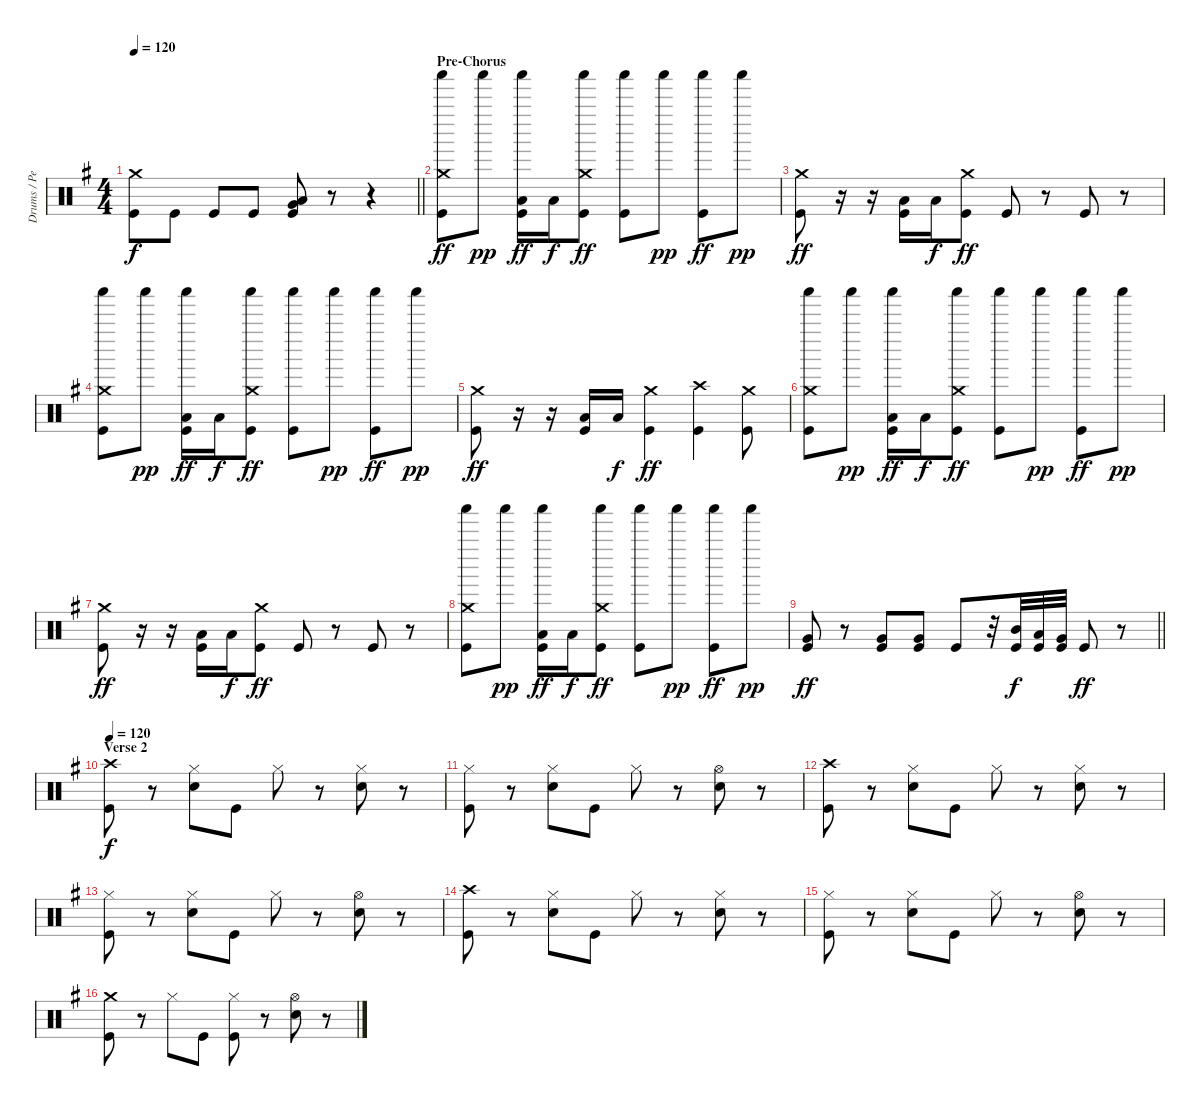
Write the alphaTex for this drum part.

\track ("Drums / Percussion" "Drums / Pe") {instrument percussion}
\staff {score}
\articulation defaults
\ts (4 4)
\tempo 120
\clef neutral
\barLineRight lightlight
\ks eminor
("Crash medium (hit)" "Kick (hit)").8{dy f} "Kick (hit)".8 "Kick (hit)".8 "Kick (hit)".8 ("Low Tom (hit)" "Very Low Tom (hit)" "Kick (hit)").8 r.8 r.4 |
\section ("" "Pre-Chorus")
("Crash medium (hit)" "Shaker (hit)" "Kick (hit)").8{dy ff} "Shaker (hit)".8{dy pp} ("Shaker (hit)" "Low Tom (hit)" "Kick (hit)").16{dy ff} "Low Tom (hit)".16{dy f} ("Crash medium (hit)" "Shaker (hit)" "Kick (hit)").8{dy ff} ("Shaker (hit)" "Kick (hit)").8 "Shaker (hit)".8{dy pp} ("Shaker (hit)" "Kick (hit)").8{dy ff} "Shaker (hit)".8{dy pp} |
("Crash medium (hit)" "Kick (hit)").8{dy ff} r.16 r.16 ("Low Tom (hit)" "Kick (hit)").16 "Low Tom (hit)".16{dy f} ("Crash medium (hit)" "Kick (hit)").8{dy ff} "Kick (hit)".8 r.8 "Kick (hit)".8 r.8 |
("Crash medium (hit)" "Shaker (hit)" "Kick (hit)").8 "Shaker (hit)".8{dy pp} ("Shaker (hit)" "Low Tom (hit)" "Kick (hit)").16{dy ff} "Low Tom (hit)".16{dy f} ("Crash medium (hit)" "Shaker (hit)" "Kick (hit)").8{dy ff} ("Shaker (hit)" "Kick (hit)").8 "Shaker (hit)".8{dy pp} ("Shaker (hit)" "Kick (hit)").8{dy ff} "Shaker (hit)".8{dy pp} |
("Crash medium (hit)" "Kick (hit)").8{dy ff} r.16 r.16 ("Low Tom (hit)" "Kick (hit)").16 "Low Tom (hit)".16{dy f} ("Crash medium (hit)" "Kick (hit)").4{dy ff} ("Crash high (hit)" "Kick (hit)").4 ("Crash medium (hit)" "Kick (hit)").8 |
("Crash medium (hit)" "Shaker (hit)" "Kick (hit)").8 "Shaker (hit)".8{dy pp} ("Shaker (hit)" "Low Tom (hit)" "Kick (hit)").16{dy ff} "Low Tom (hit)".16{dy f} ("Crash medium (hit)" "Shaker (hit)" "Kick (hit)").8{dy ff} ("Shaker (hit)" "Kick (hit)").8 "Shaker (hit)".8{dy pp} ("Shaker (hit)" "Kick (hit)").8{dy ff} "Shaker (hit)".8{dy pp} |
("Crash medium (hit)" "Kick (hit)").8{dy ff} r.16 r.16 ("Low Tom (hit)" "Kick (hit)").16 "Low Tom (hit)".16{dy f} ("Crash medium (hit)" "Kick (hit)").8{dy ff} "Kick (hit)".8 r.8 "Kick (hit)".8 r.8 |
("Crash medium (hit)" "Shaker (hit)" "Kick (hit)").8 "Shaker (hit)".8{dy pp} ("Shaker (hit)" "Low Tom (hit)" "Kick (hit)").16{dy ff} "Low Tom (hit)".16{dy f} ("Crash medium (hit)" "Shaker (hit)" "Kick (hit)").8{dy ff} ("Shaker (hit)" "Kick (hit)").8 "Shaker (hit)".8{dy pp} ("Shaker (hit)" "Kick (hit)").8{dy ff} "Shaker (hit)".8{dy pp} |
\barLineRight lightlight
("Very Low Tom (hit)" "Kick (hit)").8{dy ff} r.8 ("Very Low Tom (hit)" "Kick (hit)").8 ("Very Low Tom (hit)" "Kick (hit)").8 "Kick (hit)".8 r.32 ("Mid Tom (hit)" "Kick (hit)").32{dy f} ("Low Tom (hit)" "Kick (hit)").32 ("Very Low Tom (hit)" "Kick (hit)").32 "Kick (hit)".8{dy ff} r.8 |
\section ("" "Verse 2")
\tempo 120
("Crash high (hit)" "Kick (hit)").8{dy f} r.8 ("Hi-Hat (closed)" "Snare (hit) 2").8 "Kick (hit)".8 "Hi-Hat (closed)".8 r.8 ("Hi-Hat (closed)" "Snare (hit) 2").8 r.8 |
("Hi-Hat (closed)" "Kick (hit)").8 r.8 ("Hi-Hat (closed)" "Snare (hit) 2").8 "Kick (hit)".8 "Hi-Hat (closed)".8 r.8 ("Hi-Hat (open)" "Snare (hit) 2").8 r.8 |
("Crash high (hit)" "Kick (hit)").8 r.8 ("Hi-Hat (closed)" "Snare (hit) 2").8 "Kick (hit)".8 "Hi-Hat (closed)".8 r.8 ("Hi-Hat (closed)" "Snare (hit) 2").8 r.8 |
("Hi-Hat (closed)" "Kick (hit)").8 r.8 ("Hi-Hat (closed)" "Snare (hit) 2").8 "Kick (hit)".8 "Hi-Hat (closed)".8 r.8 ("Hi-Hat (open)" "Snare (hit) 2").8 r.8 |
("Crash high (hit)" "Kick (hit)").8 r.8 ("Hi-Hat (closed)" "Snare (hit) 2").8 "Kick (hit)".8 "Hi-Hat (closed)".8 r.8 ("Hi-Hat (closed)" "Snare (hit) 2").8 r.8 |
("Hi-Hat (closed)" "Kick (hit)").8 r.8 ("Hi-Hat (closed)" "Snare (hit) 2").8 "Kick (hit)".8 "Hi-Hat (closed)".8 r.8 ("Hi-Hat (open)" "Snare (hit) 2").8 r.8 |
("Crash medium (hit)" "Kick (hit)").8 r.8 "Hi-Hat (closed)".8 "Kick (hit)".8 ("Hi-Hat (closed)" "Kick (hit)").8 r.8 ("Hi-Hat (open)" "Snare (hit) 2").8 r.8
